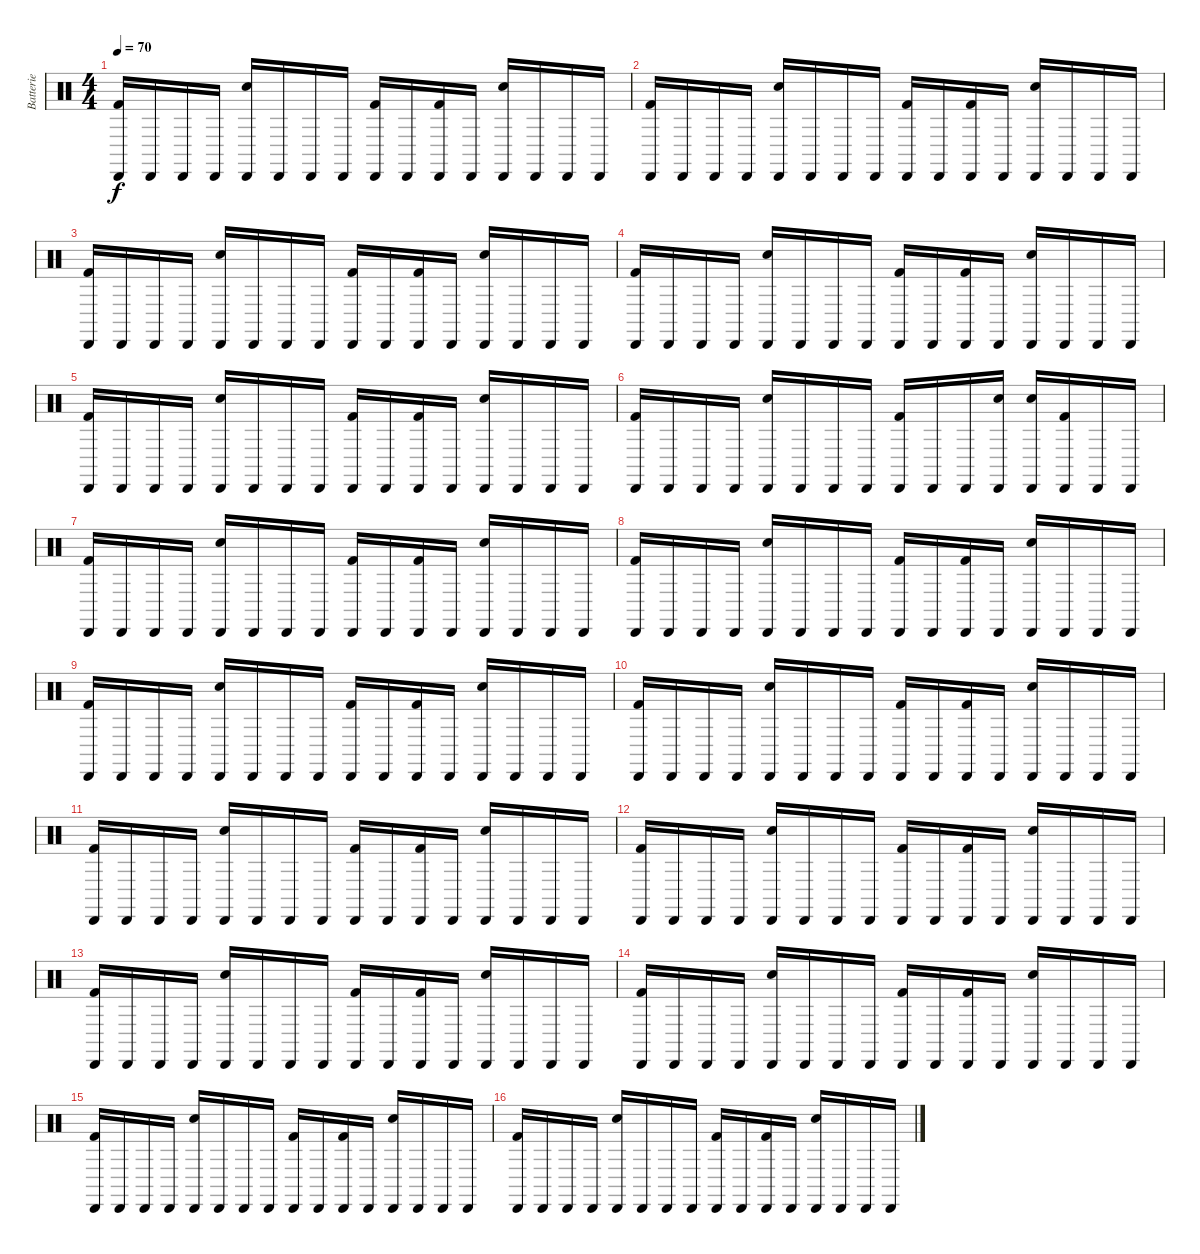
\track ("Batterie" "Batterie") {instrument percussion}
\staff {score}
\articulation defaults
\ts (4 4)
\tempo 70
\clef neutral
\ks c
("Cabasa (hit)" "Kick (hit) 2").16{dy f} "Cabasa (hit)".16 "Cabasa (hit)".16 "Cabasa (hit)".16 ("Cabasa (hit)" "Snare (hit) 2").16 "Cabasa (hit)".16 "Cabasa (hit)".16 "Cabasa (hit)".16 ("Cabasa (hit)" "Kick (hit) 2").16 "Cabasa (hit)".16 ("Cabasa (hit)" "Kick (hit) 2").16 "Cabasa (hit)".16 ("Cabasa (hit)" "Snare (hit) 2").16 "Cabasa (hit)".16 "Cabasa (hit)".16 "Cabasa (hit)".16 |
("Cabasa (hit)" "Kick (hit) 2").16 "Cabasa (hit)".16 "Cabasa (hit)".16 "Cabasa (hit)".16 ("Cabasa (hit)" "Snare (hit) 2").16 "Cabasa (hit)".16 "Cabasa (hit)".16 "Cabasa (hit)".16 ("Cabasa (hit)" "Kick (hit) 2").16 "Cabasa (hit)".16 ("Cabasa (hit)" "Kick (hit) 2").16 "Cabasa (hit)".16 ("Cabasa (hit)" "Snare (hit) 2").16 "Cabasa (hit)".16 "Cabasa (hit)".16 "Cabasa (hit)".16 |
("Cabasa (hit)" "Kick (hit) 2").16 "Cabasa (hit)".16 "Cabasa (hit)".16 "Cabasa (hit)".16 ("Cabasa (hit)" "Snare (hit) 2").16 "Cabasa (hit)".16 "Cabasa (hit)".16 "Cabasa (hit)".16 ("Cabasa (hit)" "Kick (hit) 2").16 "Cabasa (hit)".16 ("Cabasa (hit)" "Kick (hit) 2").16 "Cabasa (hit)".16 ("Cabasa (hit)" "Snare (hit) 2").16 "Cabasa (hit)".16 "Cabasa (hit)".16 "Cabasa (hit)".16 |
("Cabasa (hit)" "Kick (hit) 2").16 "Cabasa (hit)".16 "Cabasa (hit)".16 "Cabasa (hit)".16 ("Cabasa (hit)" "Snare (hit) 2").16 "Cabasa (hit)".16 "Cabasa (hit)".16 "Cabasa (hit)".16 ("Cabasa (hit)" "Kick (hit) 2").16 "Cabasa (hit)".16 ("Cabasa (hit)" "Kick (hit) 2").16 "Cabasa (hit)".16 ("Cabasa (hit)" "Snare (hit) 2").16 "Cabasa (hit)".16 "Cabasa (hit)".16 "Cabasa (hit)".16 |
("Cabasa (hit)" "Kick (hit) 2").16 "Cabasa (hit)".16 "Cabasa (hit)".16 "Cabasa (hit)".16 ("Cabasa (hit)" "Snare (hit) 2").16 "Cabasa (hit)".16 "Cabasa (hit)".16 "Cabasa (hit)".16 ("Cabasa (hit)" "Kick (hit) 2").16 "Cabasa (hit)".16 ("Cabasa (hit)" "Kick (hit) 2").16 "Cabasa (hit)".16 ("Cabasa (hit)" "Snare (hit) 2").16 "Cabasa (hit)".16 "Cabasa (hit)".16 "Cabasa (hit)".16 |
("Cabasa (hit)" "Kick (hit) 2").16 "Cabasa (hit)".16 "Cabasa (hit)".16 "Cabasa (hit)".16 ("Cabasa (hit)" "Snare (hit) 2").16 "Cabasa (hit)".16 "Cabasa (hit)".16 "Cabasa (hit)".16 ("Cabasa (hit)" "Kick (hit) 2").16 "Cabasa (hit)".16 "Cabasa (hit)".16 ("Cabasa (hit)" "Snare (hit) 2").16 ("Cabasa (hit)" "Snare (hit) 2").16 ("Cabasa (hit)" "Kick (hit) 2").16 "Cabasa (hit)".16 "Cabasa (hit)".16 |
("Cabasa (hit)" "Kick (hit) 2").16 "Cabasa (hit)".16 "Cabasa (hit)".16 "Cabasa (hit)".16 ("Cabasa (hit)" "Snare (hit) 2").16 "Cabasa (hit)".16 "Cabasa (hit)".16 "Cabasa (hit)".16 ("Cabasa (hit)" "Kick (hit) 2").16 "Cabasa (hit)".16 ("Cabasa (hit)" "Kick (hit) 2").16 "Cabasa (hit)".16 ("Cabasa (hit)" "Snare (hit) 2").16 "Cabasa (hit)".16 "Cabasa (hit)".16 "Cabasa (hit)".16 |
("Cabasa (hit)" "Kick (hit) 2").16 "Cabasa (hit)".16 "Cabasa (hit)".16 "Cabasa (hit)".16 ("Cabasa (hit)" "Snare (hit) 2").16 "Cabasa (hit)".16 "Cabasa (hit)".16 "Cabasa (hit)".16 ("Cabasa (hit)" "Kick (hit) 2").16 "Cabasa (hit)".16 ("Cabasa (hit)" "Kick (hit) 2").16 "Cabasa (hit)".16 ("Cabasa (hit)" "Snare (hit) 2").16 "Cabasa (hit)".16 "Cabasa (hit)".16 "Cabasa (hit)".16 |
("Cabasa (hit)" "Kick (hit) 2").16 "Cabasa (hit)".16 "Cabasa (hit)".16 "Cabasa (hit)".16 ("Cabasa (hit)" "Snare (hit) 2").16 "Cabasa (hit)".16 "Cabasa (hit)".16 "Cabasa (hit)".16 ("Cabasa (hit)" "Kick (hit) 2").16 "Cabasa (hit)".16 ("Cabasa (hit)" "Kick (hit) 2").16 "Cabasa (hit)".16 ("Cabasa (hit)" "Snare (hit) 2").16 "Cabasa (hit)".16 "Cabasa (hit)".16 "Cabasa (hit)".16 |
("Cabasa (hit)" "Kick (hit) 2").16 "Cabasa (hit)".16 "Cabasa (hit)".16 "Cabasa (hit)".16 ("Cabasa (hit)" "Snare (hit) 2").16 "Cabasa (hit)".16 "Cabasa (hit)".16 "Cabasa (hit)".16 ("Cabasa (hit)" "Kick (hit) 2").16 "Cabasa (hit)".16 ("Cabasa (hit)" "Kick (hit) 2").16 "Cabasa (hit)".16 ("Cabasa (hit)" "Snare (hit) 2").16 "Cabasa (hit)".16 "Cabasa (hit)".16 "Cabasa (hit)".16 |
("Cabasa (hit)" "Kick (hit) 2").16 "Cabasa (hit)".16 "Cabasa (hit)".16 "Cabasa (hit)".16 ("Cabasa (hit)" "Snare (hit) 2").16 "Cabasa (hit)".16 "Cabasa (hit)".16 "Cabasa (hit)".16 ("Cabasa (hit)" "Kick (hit) 2").16 "Cabasa (hit)".16 ("Cabasa (hit)" "Kick (hit) 2").16 "Cabasa (hit)".16 ("Cabasa (hit)" "Snare (hit) 2").16 "Cabasa (hit)".16 "Cabasa (hit)".16 "Cabasa (hit)".16 |
("Cabasa (hit)" "Kick (hit) 2").16 "Cabasa (hit)".16 "Cabasa (hit)".16 "Cabasa (hit)".16 ("Cabasa (hit)" "Snare (hit) 2").16 "Cabasa (hit)".16 "Cabasa (hit)".16 "Cabasa (hit)".16 ("Cabasa (hit)" "Kick (hit) 2").16 "Cabasa (hit)".16 ("Cabasa (hit)" "Kick (hit) 2").16 "Cabasa (hit)".16 ("Cabasa (hit)" "Snare (hit) 2").16 "Cabasa (hit)".16 "Cabasa (hit)".16 "Cabasa (hit)".16 |
("Cabasa (hit)" "Kick (hit) 2").16 "Cabasa (hit)".16 "Cabasa (hit)".16 "Cabasa (hit)".16 ("Cabasa (hit)" "Snare (hit) 2").16 "Cabasa (hit)".16 "Cabasa (hit)".16 "Cabasa (hit)".16 ("Cabasa (hit)" "Kick (hit) 2").16 "Cabasa (hit)".16 ("Cabasa (hit)" "Kick (hit) 2").16 "Cabasa (hit)".16 ("Cabasa (hit)" "Snare (hit) 2").16 "Cabasa (hit)".16 "Cabasa (hit)".16 "Cabasa (hit)".16 |
("Cabasa (hit)" "Kick (hit) 2").16 "Cabasa (hit)".16 "Cabasa (hit)".16 "Cabasa (hit)".16 ("Cabasa (hit)" "Snare (hit) 2").16 "Cabasa (hit)".16 "Cabasa (hit)".16 "Cabasa (hit)".16 ("Cabasa (hit)" "Kick (hit) 2").16 "Cabasa (hit)".16 ("Cabasa (hit)" "Kick (hit) 2").16 "Cabasa (hit)".16 ("Cabasa (hit)" "Snare (hit) 2").16 "Cabasa (hit)".16 "Cabasa (hit)".16 "Cabasa (hit)".16 |
("Cabasa (hit)" "Kick (hit) 2").16 "Cabasa (hit)".16 "Cabasa (hit)".16 "Cabasa (hit)".16 ("Cabasa (hit)" "Snare (hit) 2").16 "Cabasa (hit)".16 "Cabasa (hit)".16 "Cabasa (hit)".16 ("Cabasa (hit)" "Kick (hit) 2").16 "Cabasa (hit)".16 ("Cabasa (hit)" "Kick (hit) 2").16 "Cabasa (hit)".16 ("Cabasa (hit)" "Snare (hit) 2").16 "Cabasa (hit)".16 "Cabasa (hit)".16 "Cabasa (hit)".16 |
("Cabasa (hit)" "Kick (hit) 2").16 "Cabasa (hit)".16 "Cabasa (hit)".16 "Cabasa (hit)".16 ("Cabasa (hit)" "Snare (hit) 2").16 "Cabasa (hit)".16 "Cabasa (hit)".16 "Cabasa (hit)".16 ("Cabasa (hit)" "Kick (hit) 2").16 "Cabasa (hit)".16 ("Cabasa (hit)" "Kick (hit) 2").16 "Cabasa (hit)".16 ("Cabasa (hit)" "Snare (hit) 2").16 "Cabasa (hit)".16 "Cabasa (hit)".16 "Cabasa (hit)".16
